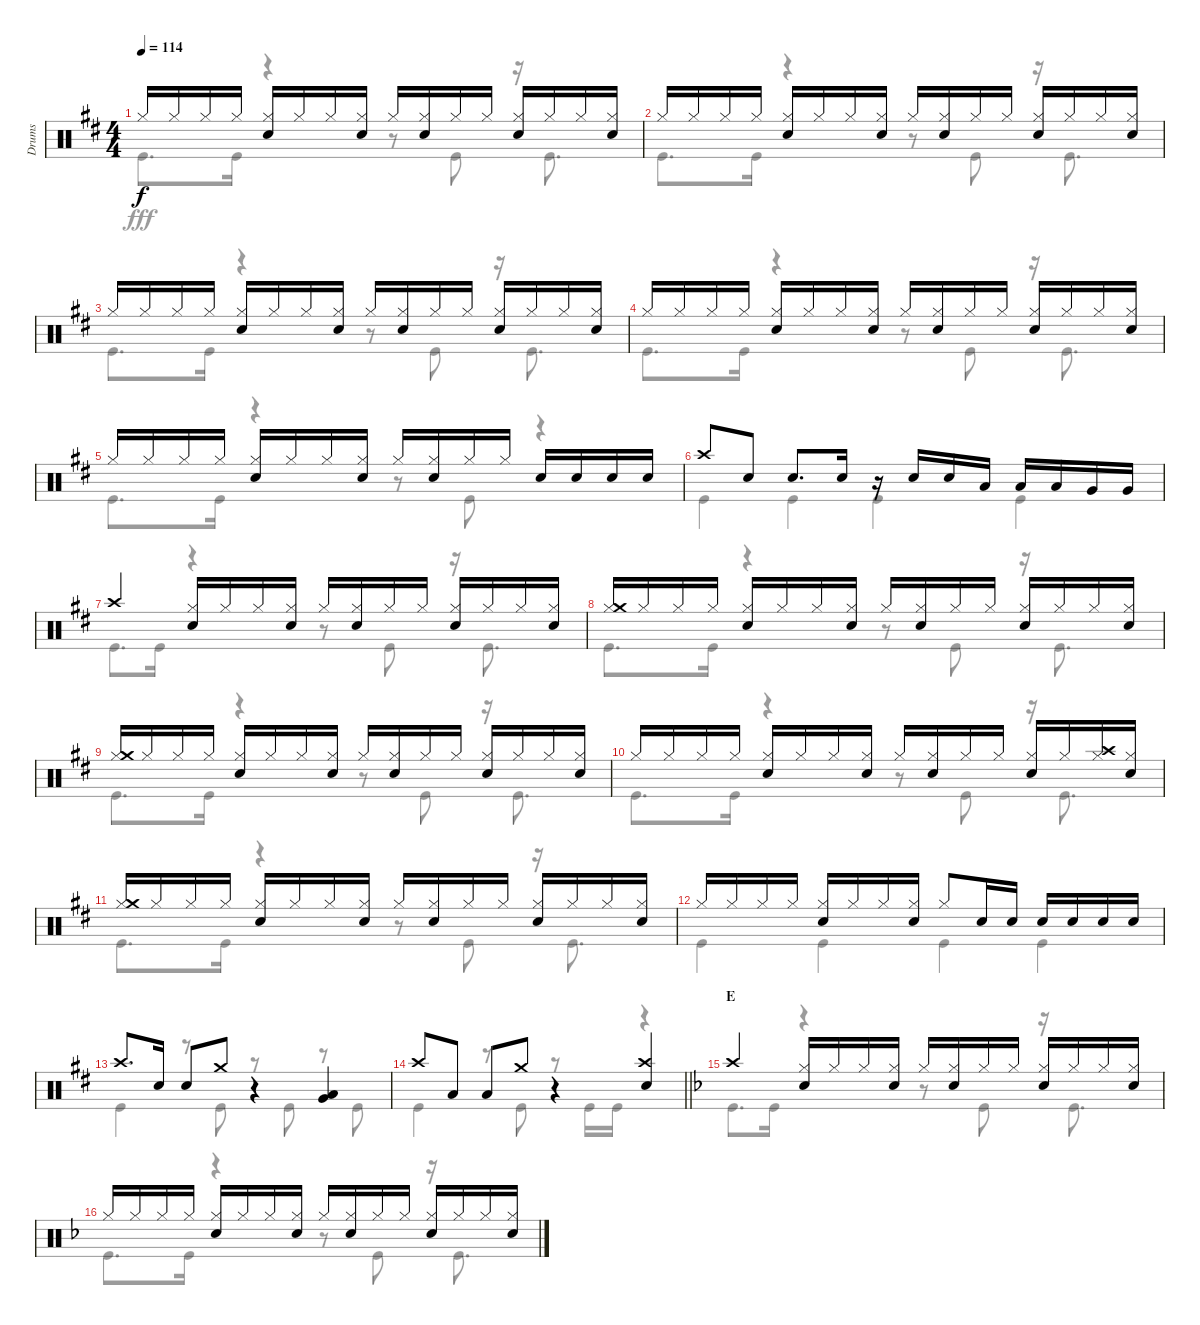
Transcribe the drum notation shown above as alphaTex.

\track ("Drums" "Drums") {instrument percussion}
\staff {score}
\articulation defaults
\voice
\ts (4 4)
\tempo 114
\clef neutral
\ks d "Hi-Hat (closed)".16{dy f} "Hi-Hat (closed)".16 "Hi-Hat (closed)".16 "Hi-Hat (closed)".16
("Hi-Hat (closed)" "Snare (hit) 2").16 "Hi-Hat (closed)".16 "Hi-Hat (closed)".16 ("Hi-Hat (closed)" "Snare (hit) 2").16 "Hi-Hat (closed)".16 ("Hi-Hat (closed)" "Snare (hit) 2").16 "Hi-Hat (closed)".16 "Hi-Hat (closed)".16 ("Hi-Hat (closed)" "Snare (hit) 2").16 "Hi-Hat (closed)".16 "Hi-Hat (closed)".16 ("Hi-Hat (closed)" "Snare (hit) 2").16 |
"Hi-Hat (closed)".16 "Hi-Hat (closed)".16 "Hi-Hat (closed)".16 "Hi-Hat (closed)".16 ("Hi-Hat (closed)" "Snare (hit) 2").16 "Hi-Hat (closed)".16 "Hi-Hat (closed)".16 ("Hi-Hat (closed)" "Snare (hit) 2").16 "Hi-Hat (closed)".16 ("Hi-Hat (closed)" "Snare (hit) 2").16 "Hi-Hat (closed)".16 "Hi-Hat (closed)".16 ("Hi-Hat (closed)" "Snare (hit) 2").16 "Hi-Hat (closed)".16 "Hi-Hat (closed)".16 ("Hi-Hat (closed)" "Snare (hit) 2").16 |
"Hi-Hat (closed)".16 "Hi-Hat (closed)".16 "Hi-Hat (closed)".16 "Hi-Hat (closed)".16 ("Hi-Hat (closed)" "Snare (hit) 2").16 "Hi-Hat (closed)".16 "Hi-Hat (closed)".16 ("Hi-Hat (closed)" "Snare (hit) 2").16 "Hi-Hat (closed)".16 ("Hi-Hat (closed)" "Snare (hit) 2").16 "Hi-Hat (closed)".16 "Hi-Hat (closed)".16 ("Hi-Hat (closed)" "Snare (hit) 2").16 "Hi-Hat (closed)".16 "Hi-Hat (closed)".16 ("Hi-Hat (closed)" "Snare (hit) 2").16 |
"Hi-Hat (closed)".16 "Hi-Hat (closed)".16 "Hi-Hat (closed)".16 "Hi-Hat (closed)".16 ("Hi-Hat (closed)" "Snare (hit) 2").16 "Hi-Hat (closed)".16 "Hi-Hat (closed)".16 ("Hi-Hat (closed)" "Snare (hit) 2").16 "Hi-Hat (closed)".16 ("Hi-Hat (closed)" "Snare (hit) 2").16 "Hi-Hat (closed)".16 "Hi-Hat (closed)".16 ("Hi-Hat (closed)" "Snare (hit) 2").16 "Hi-Hat (closed)".16 "Hi-Hat (closed)".16 ("Hi-Hat (closed)" "Snare (hit) 2").16 |
"Hi-Hat (closed)".16 "Hi-Hat (closed)".16 "Hi-Hat (closed)".16 "Hi-Hat (closed)".16 ("Hi-Hat (closed)" "Snare (hit) 2").16 "Hi-Hat (closed)".16 "Hi-Hat (closed)".16 ("Hi-Hat (closed)" "Snare (hit) 2").16 "Hi-Hat (closed)".16 ("Hi-Hat (closed)" "Snare (hit) 2").16 "Hi-Hat (closed)".16 "Hi-Hat (closed)".16 "Snare (hit) 2".16 "Snare (hit) 2".16 "Snare (hit) 2".16 "Snare (hit) 2".16 |
"Crash high (hit)".8 "Snare (hit) 2".8 "Snare (hit) 2".8{d} "Snare (hit) 2".16 r.16 "Snare (hit) 2".16 "Snare (hit) 2".16 "Low Tom (hit)".16 "Low Tom (hit)".16 "Low Tom (hit)".16 "Very Low Tom (hit)".16 "Very Low Tom (hit)".16 |
"Crash high (hit)".4 ("Hi-Hat (closed)" "Snare (hit) 2").16 "Hi-Hat (closed)".16 "Hi-Hat (closed)".16 ("Hi-Hat (closed)" "Snare (hit) 2").16 "Hi-Hat (closed)".16 ("Hi-Hat (closed)" "Snare (hit) 2").16 "Hi-Hat (closed)".16 "Hi-Hat (closed)".16 ("Hi-Hat (closed)" "Snare (hit) 2").16 "Hi-Hat (closed)".16 "Hi-Hat (closed)".16 ("Hi-Hat (closed)" "Snare (hit) 2").16 |
("Hi-Hat (closed)" "Crash medium (hit)").16 "Hi-Hat (closed)".16 "Hi-Hat (closed)".16 "Hi-Hat (closed)".16 ("Hi-Hat (closed)" "Snare (hit) 2").16 "Hi-Hat (closed)".16 "Hi-Hat (closed)".16 ("Hi-Hat (closed)" "Snare (hit) 2").16 "Hi-Hat (closed)".16 ("Hi-Hat (closed)" "Snare (hit) 2").16 "Hi-Hat (closed)".16 "Hi-Hat (closed)".16 ("Hi-Hat (closed)" "Snare (hit) 2").16 "Hi-Hat (closed)".16 "Hi-Hat (closed)".16 ("Hi-Hat (closed)" "Snare (hit) 2").16 |
("Hi-Hat (closed)" "Crash medium (hit)").16 "Hi-Hat (closed)".16 "Hi-Hat (closed)".16 "Hi-Hat (closed)".16 ("Hi-Hat (closed)" "Snare (hit) 2").16 "Hi-Hat (closed)".16 "Hi-Hat (closed)".16 ("Hi-Hat (closed)" "Snare (hit) 2").16 "Hi-Hat (closed)".16 ("Hi-Hat (closed)" "Snare (hit) 2").16 "Hi-Hat (closed)".16 "Hi-Hat (closed)".16 ("Hi-Hat (closed)" "Snare (hit) 2").16 "Hi-Hat (closed)".16 "Hi-Hat (closed)".16 ("Hi-Hat (closed)" "Snare (hit) 2").16 |
"Hi-Hat (closed)".16 "Hi-Hat (closed)".16 "Hi-Hat (closed)".16 "Hi-Hat (closed)".16 ("Hi-Hat (closed)" "Snare (hit) 2").16 "Hi-Hat (closed)".16 "Hi-Hat (closed)".16 ("Hi-Hat (closed)" "Snare (hit) 2").16 "Hi-Hat (closed)".16 ("Hi-Hat (closed)" "Snare (hit) 2").16 "Hi-Hat (closed)".16 "Hi-Hat (closed)".16 ("Hi-Hat (closed)" "Snare (hit) 2").16 "Hi-Hat (closed)".16 ("Hi-Hat (closed)" "Crash high (hit)").16 ("Hi-Hat (closed)" "Snare (hit) 2").16 |
("Hi-Hat (closed)" "Crash medium (hit)").16 "Hi-Hat (closed)".16 "Hi-Hat (closed)".16 "Hi-Hat (closed)".16 ("Hi-Hat (closed)" "Snare (hit) 2").16 "Hi-Hat (closed)".16 "Hi-Hat (closed)".16 ("Hi-Hat (closed)" "Snare (hit) 2").16 "Hi-Hat (closed)".16 ("Hi-Hat (closed)" "Snare (hit) 2").16 "Hi-Hat (closed)".16 "Hi-Hat (closed)".16 ("Hi-Hat (closed)" "Snare (hit) 2").16 "Hi-Hat (closed)".16 "Hi-Hat (closed)".16 ("Hi-Hat (closed)" "Snare (hit) 2").16 |
"Hi-Hat (closed)".16 "Hi-Hat (closed)".16 "Hi-Hat (closed)".16 "Hi-Hat (closed)".16 ("Hi-Hat (closed)" "Snare (hit) 2").16 "Hi-Hat (closed)".16 "Hi-Hat (closed)".16 ("Hi-Hat (closed)" "Snare (hit) 2").16 "Hi-Hat (closed)".8 "Snare (hit) 2".16 "Snare (hit) 2".16 "Snare (hit) 2".16 "Snare (hit) 2".16 "Snare (hit) 2".16 "Snare (hit) 2".16 |
"Crash high (hit)".8{d} "Snare (hit) 2".16 "Snare (hit) 2".8 "Crash medium (hit)".8 r.4 ("Low Tom (hit)" "Very Low Tom (hit)").4 |
\barLineRight lightlight "Crash high (hit)".8 "Low Tom (hit)".8 "Low Tom (hit)".8 "Crash medium (hit)".8
r.4 ("Crash high (hit)" "Snare (hit) 2").4 |
\section ("" "E")
\ks f "Crash high (hit)".4
("Hi-Hat (closed)" "Snare (hit) 2").16 "Hi-Hat (closed)".16 "Hi-Hat (closed)".16 ("Hi-Hat (closed)" "Snare (hit) 2").16 "Hi-Hat (closed)".16 ("Hi-Hat (closed)" "Snare (hit) 2").16 "Hi-Hat (closed)".16 "Hi-Hat (closed)".16 ("Hi-Hat (closed)" "Snare (hit) 2").16 "Hi-Hat (closed)".16 "Hi-Hat (closed)".16 ("Hi-Hat (closed)" "Snare (hit) 2").16 |
"Hi-Hat (closed)".16 "Hi-Hat (closed)".16 "Hi-Hat (closed)".16 "Hi-Hat (closed)".16 ("Hi-Hat (closed)" "Snare (hit) 2").16 "Hi-Hat (closed)".16 "Hi-Hat (closed)".16 ("Hi-Hat (closed)" "Snare (hit) 2").16 "Hi-Hat (closed)".16 ("Hi-Hat (closed)" "Snare (hit) 2").16 "Hi-Hat (closed)".16 "Hi-Hat (closed)".16 ("Hi-Hat (closed)" "Snare (hit) 2").16 "Hi-Hat (closed)".16 "Hi-Hat (closed)".16 ("Hi-Hat (closed)" "Snare (hit) 2").16
\voice
\clef neutral
\ottava regular
\simile none
\ks d "Kick (hit)".8{d dy fff} "Kick (hit)".16
r.4 r.8 "Kick (hit)".8 r.16 "Kick (hit)".8{d} |
"Kick (hit)".8{d} "Kick (hit)".16 r.4 r.8 "Kick (hit)".8 r.16 "Kick (hit)".8{d} |
"Kick (hit)".8{d} "Kick (hit)".16 r.4 r.8 "Kick (hit)".8 r.16 "Kick (hit)".8{d} |
"Kick (hit)".8{d} "Kick (hit)".16 r.4 r.8 "Kick (hit)".8 r.16 "Kick (hit)".8{d} |
"Kick (hit)".8{d} "Kick (hit)".16 r.4 r.8 "Kick (hit)".8 r.4 |
"Kick (hit)".4 "Kick (hit)".4 "Kick (hit)".4 "Kick (hit)".4 |
"Kick (hit)".8{d} "Kick (hit)".16 r.4 r.8 "Kick (hit)".8 r.16 "Kick (hit)".8{d} |
"Kick (hit)".8{d} "Kick (hit)".16 r.4 r.8 "Kick (hit)".8 r.16 "Kick (hit)".8{d} |
"Kick (hit)".8{d} "Kick (hit)".16 r.4 r.8 "Kick (hit)".8 r.16 "Kick (hit)".8{d} |
"Kick (hit)".8{d} "Kick (hit)".16 r.4 r.8 "Kick (hit)".8 r.16 "Kick (hit)".8{d} |
"Kick (hit)".8{d} "Kick (hit)".16 r.4 r.8 "Kick (hit)".8 r.16 "Kick (hit)".8{d} |
"Kick (hit)".4 "Kick (hit)".4 "Kick (hit)".4 "Kick (hit)".4 |
"Kick (hit)".4 r.8 "Kick (hit)".8 r.8 "Kick (hit)".8 r.8 "Kick (hit)".8 |
\barLineRight lightlight "Kick (hit)".4
r.8 "Kick (hit)".8 r.8 "Kick (hit)".16 "Kick (hit)".16 r.4 |
\ks f "Kick (hit)".8{d} "Kick (hit)".16
r.4 r.8 "Kick (hit)".8 r.16 "Kick (hit)".8{d} |
"Kick (hit)".8{d} "Kick (hit)".16 r.4 r.8 "Kick (hit)".8 r.16 "Kick (hit)".8{d}
